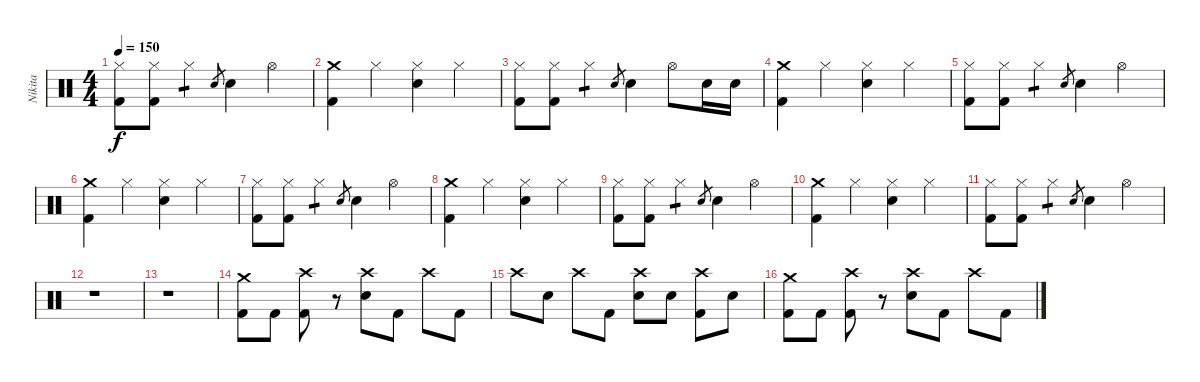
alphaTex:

\track ("Nikita" "Nikita") {instrument percussion}
\staff {score}
\articulation defaults
\ts (4 4)
\tempo 150
\clef neutral
\ks c
("Hi-Hat (closed)" "Kick (hit) 2").8{dy f} ("Hi-Hat (closed)" "Kick (hit) 2").8 "Hi-Hat (closed)".4{tp 1} "Electric Snare (hit)".8{gr} "Electric Snare (hit)".4 "Hi-Hat (open)".4 |
("Crash medium (hit)" "Kick (hit) 2").4 "Hi-Hat (closed)".4 ("Hi-Hat (closed)" "Electric Snare (hit)").4 "Hi-Hat (closed)".4 |
("Hi-Hat (closed)" "Kick (hit) 2").8 ("Hi-Hat (closed)" "Kick (hit) 2").8 "Hi-Hat (closed)".4{tp 1} "Electric Snare (hit)".8{gr} "Electric Snare (hit)".4 "Hi-Hat (open)".8 "Electric Snare (hit)".16 "Electric Snare (hit)".16 |
("Crash medium (hit)" "Kick (hit) 2").4 "Hi-Hat (closed)".4 ("Hi-Hat (closed)" "Electric Snare (hit)").4 "Hi-Hat (closed)".4 |
("Hi-Hat (closed)" "Kick (hit) 2").8 ("Hi-Hat (closed)" "Kick (hit) 2").8 "Hi-Hat (closed)".4{tp 1} "Electric Snare (hit)".8{gr} "Electric Snare (hit)".4 "Hi-Hat (open)".4 |
("Crash medium (hit)" "Kick (hit) 2").4 "Hi-Hat (closed)".4 ("Hi-Hat (closed)" "Electric Snare (hit)").4 "Hi-Hat (closed)".4 |
("Hi-Hat (closed)" "Kick (hit) 2").8 ("Hi-Hat (closed)" "Kick (hit) 2").8 "Hi-Hat (closed)".4{tp 1} "Electric Snare (hit)".8{gr} "Electric Snare (hit)".4 "Hi-Hat (open)".4 |
("Crash medium (hit)" "Kick (hit) 2").4 "Hi-Hat (closed)".4 ("Hi-Hat (closed)" "Electric Snare (hit)").4 "Hi-Hat (closed)".4 |
("Hi-Hat (closed)" "Kick (hit) 2").8 ("Hi-Hat (closed)" "Kick (hit) 2").8 "Hi-Hat (closed)".4{tp 1} "Electric Snare (hit)".8{gr} "Electric Snare (hit)".4 "Hi-Hat (open)".4 |
("Crash medium (hit)" "Kick (hit) 2").4 "Hi-Hat (closed)".4 ("Hi-Hat (closed)" "Electric Snare (hit)").4 "Hi-Hat (closed)".4 |
("Hi-Hat (closed)" "Kick (hit) 2").8 ("Hi-Hat (closed)" "Kick (hit) 2").8 "Hi-Hat (closed)".4{tp 1} "Electric Snare (hit)".8{gr} "Electric Snare (hit)".4 "Hi-Hat (open)".4 |
r.1 |
r.1 |
("Crash medium (hit)" "Kick (hit) 2").8 "Kick (hit) 2".8 ("Crash high (hit)" "Kick (hit) 2").8 r.8 ("Crash high (hit)" "Electric Snare (hit)").8 "Kick (hit) 2".8 "Crash high (hit)".8 "Kick (hit) 2".8 |
"Crash high (hit)".8 "Electric Snare (hit)".8 "Crash high (hit)".8 "Kick (hit) 2".8 ("Crash high (hit)" "Electric Snare (hit)").8 "Electric Snare (hit)".8 ("Crash high (hit)" "Kick (hit) 2").8 "Electric Snare (hit)".8 |
("Crash medium (hit)" "Kick (hit) 2").8 "Kick (hit) 2".8 ("Crash high (hit)" "Kick (hit) 2").8 r.8 ("Crash high (hit)" "Electric Snare (hit)").8 "Kick (hit) 2".8 "Crash high (hit)".8 "Kick (hit) 2".8
